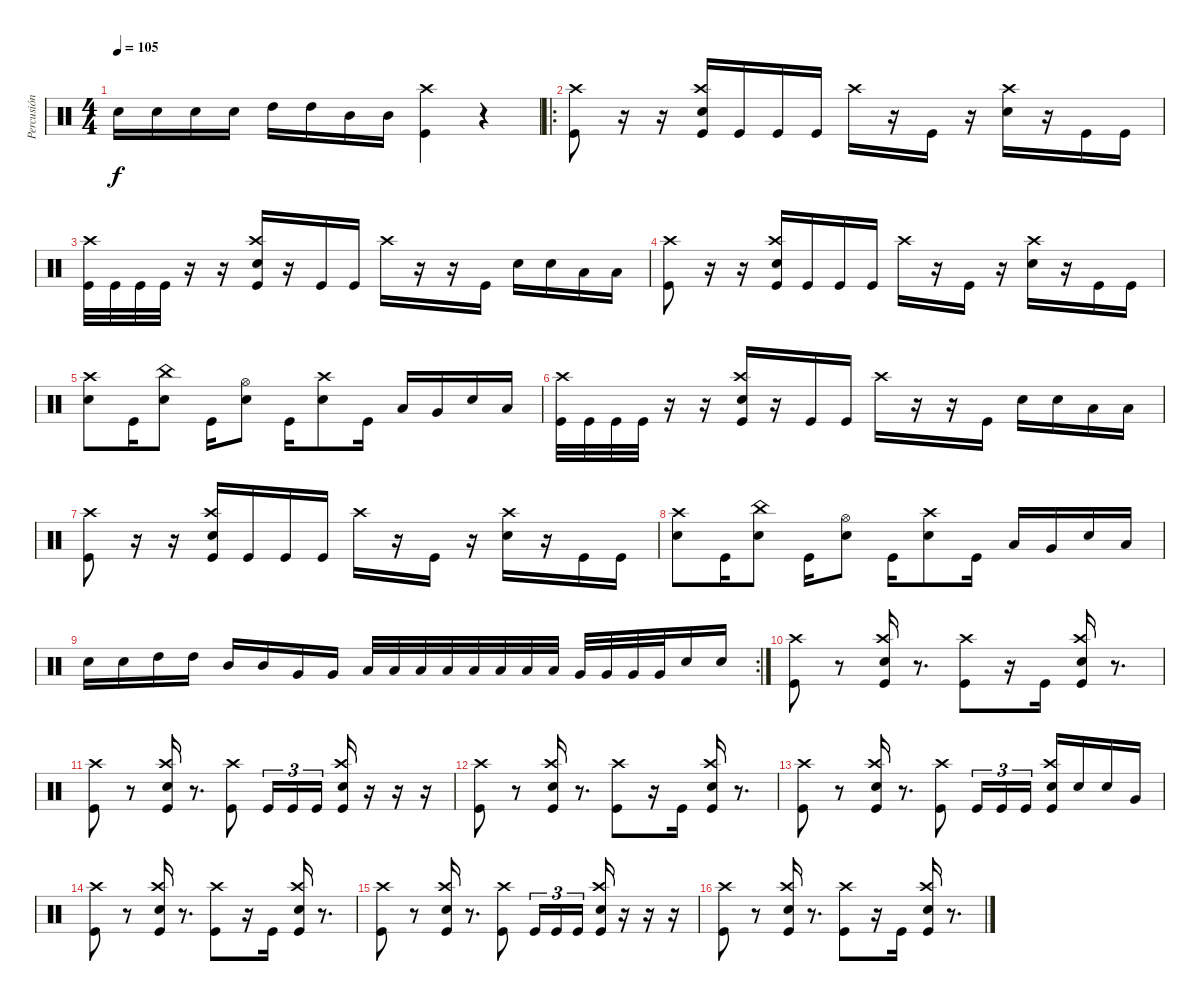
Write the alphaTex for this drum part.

\track ("Percusión" "Percusión") {instrument percussion}
\staff {score}
\articulation defaults
\ts (4 4)
\tempo 105
\clef neutral
\ks c "Snare (hit) 2".16{dy f} "Snare (hit) 2".16 "Snare (hit) 2".16 "Snare (hit) 2".16 "High Tom (hit)".16 "High Tom (hit)".16 "Mid Tom (hit)".16 "Mid Tom (hit)".16
("Crash high (hit)" "Kick (hit)").4 r.4 |
\ro
("Crash high (hit)" "Kick (hit)").8 r.16 r.16 ("Crash high (hit)" "Snare (hit) 2" "Kick (hit)").16 "Kick (hit)".16 "Kick (hit)".16 "Kick (hit)".16 "Crash high (hit)".16 r.16 "Kick (hit)".16 r.16 ("Crash high (hit)" "Snare (hit) 2").16 r.16 "Kick (hit)".16 "Kick (hit)".16 |
("Crash high (hit)" "Kick (hit)").32 "Kick (hit)".32 "Kick (hit)".32 "Kick (hit)".32 r.16 r.16 ("Crash high (hit)" "Snare (hit) 2" "Kick (hit)").16 r.16 "Kick (hit)".16 "Kick (hit)".16 "Crash high (hit)".16 r.16 r.16 "Kick (hit)".16 "Snare (hit) 2".16 "Snare (hit) 2".16 "Low Floor Tom (hit)".16 "Low Floor Tom (hit)".16 |
("Crash high (hit)" "Kick (hit)").8 r.16 r.16 ("Crash high (hit)" "Snare (hit) 2" "Kick (hit)").16 "Kick (hit)".16 "Kick (hit)".16 "Kick (hit)".16 "Crash high (hit)".16 r.16 "Kick (hit)".16 r.16 ("Crash high (hit)" "Snare (hit) 2").16 r.16 "Kick (hit)".16 "Kick (hit)".16 |
("Crash high (hit)" "Snare (hit) 2").8 "Kick (hit)".16 ("China (hit)" "Snare (hit) 2").8 "Kick (hit)".16 ("Hi-Hat (open)" "Snare (hit) 2").8 "Kick (hit)".16 ("Crash high (hit)" "Snare (hit) 2").8 "Kick (hit)".16 "Low Floor Tom (hit)".16 "Very Low Tom (hit)".16 "Snare (hit) 2".16 "Low Floor Tom (hit)".16 |
("Crash high (hit)" "Kick (hit)").32 "Kick (hit)".32 "Kick (hit)".32 "Kick (hit)".32 r.16 r.16 ("Crash high (hit)" "Snare (hit) 2" "Kick (hit)").16 r.16 "Kick (hit)".16 "Kick (hit)".16 "Crash high (hit)".16 r.16 r.16 "Kick (hit)".16 "Snare (hit) 2".16 "Snare (hit) 2".16 "Low Floor Tom (hit)".16 "Low Floor Tom (hit)".16 |
("Crash high (hit)" "Kick (hit)").8 r.16 r.16 ("Crash high (hit)" "Snare (hit) 2" "Kick (hit)").16 "Kick (hit)".16 "Kick (hit)".16 "Kick (hit)".16 "Crash high (hit)".16 r.16 "Kick (hit)".16 r.16 ("Crash high (hit)" "Snare (hit) 2").16 r.16 "Kick (hit)".16 "Kick (hit)".16 |
("Crash high (hit)" "Snare (hit) 2").8 "Kick (hit)".16 ("China (hit)" "Snare (hit) 2").8 "Kick (hit)".16 ("Hi-Hat (open)" "Snare (hit) 2").8 "Kick (hit)".16 ("Crash high (hit)" "Snare (hit) 2").8 "Kick (hit)".16 "Low Floor Tom (hit)".16 "Very Low Tom (hit)".16 "Snare (hit) 2".16 "Low Floor Tom (hit)".16 |
\rc 2 "Snare (hit) 2".16 "Snare (hit) 2".16 "High Tom (hit)".16 "High Tom (hit)".16 "Mid Tom (hit)".16 "Mid Tom (hit)".16 "Very Low Tom (hit)".16 "Very Low Tom (hit)".16 "Low Floor Tom (hit)".32 "Low Floor Tom (hit)".32 "Low Floor Tom (hit)".32 "Low Floor Tom (hit)".32 "Low Floor Tom (hit)".32 "Low Floor Tom (hit)".32 "Low Floor Tom (hit)".32 "Low Floor Tom (hit)".32 "Very Low Tom (hit)".32 "Very Low Tom (hit)".32 "Very Low Tom (hit)".32 "Very Low Tom (hit)".32 "Snare (hit) 2".16 "Snare (hit) 2".16
|
("Crash high (hit)" "Kick (hit)").8 r.8 ("Crash high (hit)" "Snare (hit) 2" "Kick (hit)").16 r.8{d} ("Crash high (hit)" "Kick (hit)").8 r.16 "Kick (hit)".16 ("Crash high (hit)" "Snare (hit) 2" "Kick (hit)").16 r.8{d} |
("Crash high (hit)" "Kick (hit)").8 r.8 ("Crash high (hit)" "Snare (hit) 2" "Kick (hit)").16 r.8{d} ("Crash high (hit)" "Kick (hit)").8 "Kick (hit)".16{tu (3 2)} "Kick (hit)".16{tu (3 2)} "Kick (hit)".16{tu (3 2)} ("Crash high (hit)" "Snare (hit) 2" "Kick (hit)").16 r.16 r.16 r.16 |
("Crash high (hit)" "Kick (hit)").8 r.8 ("Crash high (hit)" "Snare (hit) 2" "Kick (hit)").16 r.8{d} ("Crash high (hit)" "Kick (hit)").8 r.16 "Kick (hit)".16 ("Crash high (hit)" "Snare (hit) 2" "Kick (hit)").16 r.8{d} |
("Crash high (hit)" "Kick (hit)").8 r.8 ("Crash high (hit)" "Snare (hit) 2" "Kick (hit)").16 r.8{d} ("Crash high (hit)" "Kick (hit)").8 "Kick (hit)".16{tu (3 2)} "Kick (hit)".16{tu (3 2)} "Kick (hit)".16{tu (3 2)} ("Crash high (hit)" "Snare (hit) 2" "Kick (hit)").16 "Snare (hit) 2".16 "Snare (hit) 2".16 "Very Low Tom (hit)".16 |
("Crash high (hit)" "Kick (hit)").8 r.8 ("Crash high (hit)" "Snare (hit) 2" "Kick (hit)").16 r.8{d} ("Crash high (hit)" "Kick (hit)").8 r.16 "Kick (hit)".16 ("Crash high (hit)" "Snare (hit) 2" "Kick (hit)").16 r.8{d} |
("Crash high (hit)" "Kick (hit)").8 r.8 ("Crash high (hit)" "Snare (hit) 2" "Kick (hit)").16 r.8{d} ("Crash high (hit)" "Kick (hit)").8 "Kick (hit)".16{tu (3 2)} "Kick (hit)".16{tu (3 2)} "Kick (hit)".16{tu (3 2)} ("Crash high (hit)" "Snare (hit) 2" "Kick (hit)").16 r.16 r.16 r.16 |
("Crash high (hit)" "Kick (hit)").8 r.8 ("Crash high (hit)" "Snare (hit) 2" "Kick (hit)").16 r.8{d} ("Crash high (hit)" "Kick (hit)").8 r.16 "Kick (hit)".16 ("Crash high (hit)" "Snare (hit) 2" "Kick (hit)").16 r.8{d}
